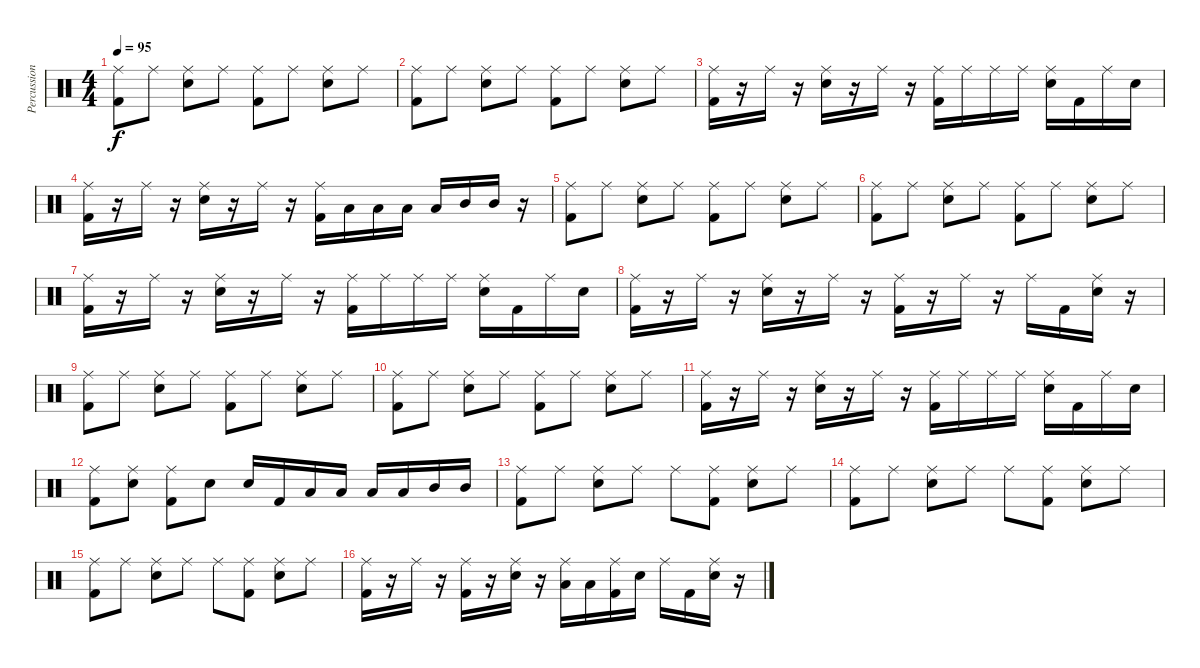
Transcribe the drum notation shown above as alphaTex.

\track ("Percussion" "Percussion") {instrument percussion}
\staff
\articulation defaults
\ts (4 4)
\tempo 95
\clef neutral
\ks c
("Ride (middle)" "Kick (hit) 2").8{dy f} "Ride (middle)".8 ("Ride (middle)" "Electric Snare (hit)").8 "Ride (middle)".8 ("Ride (middle)" "Kick (hit) 2").8 "Ride (middle)".8 ("Ride (middle)" "Electric Snare (hit)").8 "Ride (middle)".8 |
("Ride (middle)" "Kick (hit) 2").8 "Ride (middle)".8 ("Ride (middle)" "Electric Snare (hit)").8 "Ride (middle)".8 ("Ride (middle)" "Kick (hit) 2").8 "Ride (middle)".8 ("Ride (middle)" "Electric Snare (hit)").8 "Ride (middle)".8 |
("Ride (middle)" "Kick (hit) 2").16 r.16 "Ride (middle)".16 r.16 ("Ride (middle)" "Electric Snare (hit)").16 r.16 "Ride (middle)".16 r.16 ("Ride (middle)" "Kick (hit) 2").16 "Ride (middle)".16 "Ride (middle)".16 "Ride (middle)".16 ("Ride (middle)" "Electric Snare (hit)").16 "Kick (hit) 2".16 "Ride (middle)".16 "Electric Snare (hit)".16 |
("Ride (middle)" "Kick (hit) 2").16 r.16 "Ride (middle)".16 r.16 ("Ride (middle)" "Electric Snare (hit)").16 r.16 "Ride (middle)".16 r.16 ("Ride (middle)" "Kick (hit) 2").16 "Low Floor Tom (hit)".16 "Low Floor Tom (hit)".16 "Low Tom (hit)".16 "Low Tom (hit)".16 "Mid Tom (hit)".16 "Mid Tom (hit)".16 r.16 |
("Ride (middle)" "Kick (hit) 2").8 "Ride (middle)".8 ("Ride (middle)" "Electric Snare (hit)").8 "Ride (middle)".8 ("Ride (middle)" "Kick (hit) 2").8 "Ride (middle)".8 ("Ride (middle)" "Electric Snare (hit)").8 "Ride (middle)".8 |
("Ride (middle)" "Kick (hit) 2").8 "Ride (middle)".8 ("Ride (middle)" "Electric Snare (hit)").8 "Ride (middle)".8 ("Ride (middle)" "Kick (hit) 2").8 "Ride (middle)".8 ("Ride (middle)" "Electric Snare (hit)").8 "Ride (middle)".8 |
("Ride (middle)" "Kick (hit) 2").16 r.16 "Ride (middle)".16 r.16 ("Ride (middle)" "Electric Snare (hit)").16 r.16 "Ride (middle)".16 r.16 ("Ride (middle)" "Kick (hit) 2").16 "Ride (middle)".16 "Ride (middle)".16 "Ride (middle)".16 ("Ride (middle)" "Electric Snare (hit)").16 "Kick (hit) 2".16 "Ride (middle)".16 "Electric Snare (hit)".16 |
("Ride (middle)" "Kick (hit) 2").16 r.16 "Ride (middle)".16 r.16 ("Ride (middle)" "Electric Snare (hit)").16 r.16 "Ride (middle)".16 r.16 ("Ride (middle)" "Kick (hit) 2").16 r.16 "Ride (middle)".16 r.16 "Ride (middle)".16 "Kick (hit) 2".16 ("Ride (middle)" "Electric Snare (hit)").16 r.16 |
("Ride (middle)" "Kick (hit) 2").8 "Ride (middle)".8 ("Ride (middle)" "Electric Snare (hit)").8 "Ride (middle)".8 ("Ride (middle)" "Kick (hit) 2").8 "Ride (middle)".8 ("Ride (middle)" "Electric Snare (hit)").8 "Ride (middle)".8 |
("Ride (middle)" "Kick (hit) 2").8 "Ride (middle)".8 ("Ride (middle)" "Electric Snare (hit)").8 "Ride (middle)".8 ("Ride (middle)" "Kick (hit) 2").8 "Ride (middle)".8 ("Ride (middle)" "Electric Snare (hit)").8 "Ride (middle)".8 |
("Ride (middle)" "Kick (hit) 2").16 r.16 "Ride (middle)".16 r.16 ("Ride (middle)" "Electric Snare (hit)").16 r.16 "Ride (middle)".16 r.16 ("Ride (middle)" "Kick (hit) 2").16 "Ride (middle)".16 "Ride (middle)".16 "Ride (middle)".16 ("Ride (middle)" "Electric Snare (hit)").16 "Kick (hit) 2".16 "Ride (middle)".16 "Electric Snare (hit)".16 |
("Kick (hit) 2" "Ride (middle)").8 ("Electric Snare (hit)" "Ride (middle)").8 ("Kick (hit) 2" "Ride (middle)").8 "Electric Snare (hit)".8 "Electric Snare (hit)".16 "Kick (hit) 2".16 "Low Floor Tom (hit)".16 "Low Floor Tom (hit)".16 "Low Tom (hit)".16 "Low Tom (hit)".16 "Mid Tom (hit)".16 "Mid Tom (hit)".16 |
("Ride (middle)" "Kick (hit) 2").8 "Ride (middle)".8 ("Ride (middle)" "Electric Snare (hit)").8 "Ride (middle)".8 "Ride (middle)".8 ("Ride (middle)" "Kick (hit) 2").8 ("Ride (middle)" "Electric Snare (hit)").8 "Ride (middle)".8 |
("Ride (middle)" "Kick (hit) 2").8 "Ride (middle)".8 ("Ride (middle)" "Electric Snare (hit)").8 "Ride (middle)".8 "Ride (middle)".8 ("Ride (middle)" "Kick (hit) 2").8 ("Ride (middle)" "Electric Snare (hit)").8 "Ride (middle)".8 |
("Ride (middle)" "Kick (hit) 2").8 "Ride (middle)".8 ("Ride (middle)" "Electric Snare (hit)").8 "Ride (middle)".8 "Ride (middle)".8 ("Ride (middle)" "Kick (hit) 2").8 ("Ride (middle)" "Electric Snare (hit)").8 "Ride (middle)".8 |
("Ride (middle)" "Kick (hit) 2").16 r.16 "Ride (middle)".16 r.16 ("Ride (middle)" "Kick (hit) 2").16 r.16 ("Ride (middle)" "Electric Snare (hit)").16 r.16 ("Ride (middle)" "Low Floor Tom (hit)").16 "Low Tom (hit)".16 ("Ride (middle)" "Kick (hit) 2").16 "Electric Snare (hit)".16 "Ride (middle)".16 "Kick (hit) 2".16 ("Ride (middle)" "Electric Snare (hit)").16 r.16
